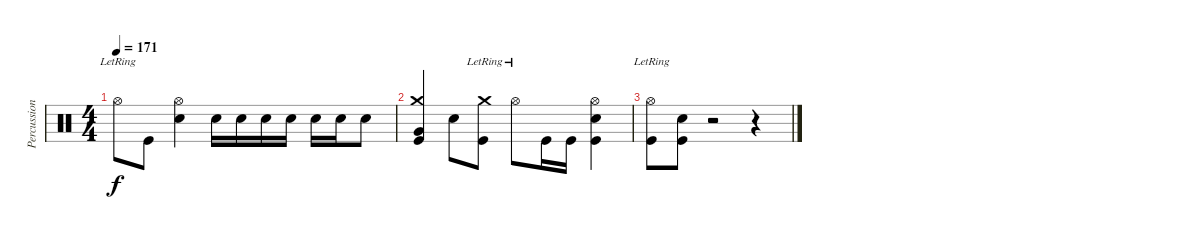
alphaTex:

\track ("Percussions" "Percussion") {instrument percussion}
\staff {score}
\articulation defaults
\ts (4 4)
\tempo 171
\clef neutral
\ks c "Hi-Hat (open)"{lr}.8{dy f} "Kick (hit)".8
("Hi-Hat (open)" "Snare (hit) 2").4 "Snare (hit) 2".16 "Snare (hit) 2".16 "Snare (hit) 2".16 "Snare (hit) 2".16 "Snare (hit) 2".16 "Snare (hit) 2".16 "Snare (hit) 2".8 |
("Crash medium (hit)" "Very Low Tom (hit)" "Kick (hit)").4 "Snare (hit) 2".8 ("Crash medium (hit)"{lr} "Kick (hit)").8 "Hi-Hat (open)"{lr}.8 "Kick (hit)".16 "Kick (hit)".16 ("Hi-Hat (open)" "Snare (hit) 2" "Kick (hit)").4 |
("Hi-Hat (open)"{lr} "Kick (hit)").8 ("Snare (hit) 2" "Kick (hit)").8 r.2 r.4
